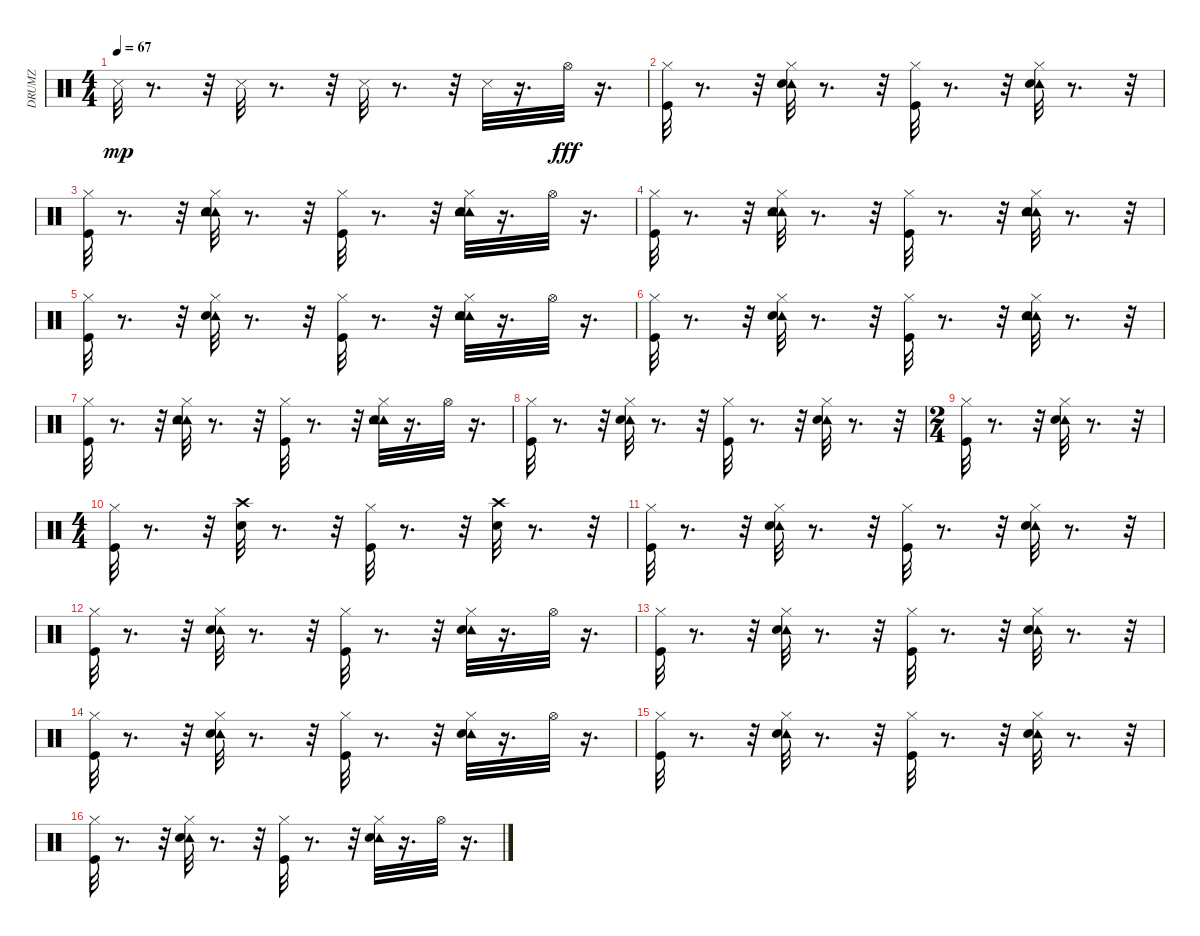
\track ("DRUMZ" "DRUMZ") {instrument percussion}
\staff {score}
\articulation defaults
\ts (4 4)
\tempo 67
\clef neutral
\ks c "Snare (side stick) 3".32{dy mp}
r.8{d} r.32 "Snare (side stick) 3".32 r.8{d} r.32 "Snare (side stick) 3".32 r.8{d} r.32 "Snare (side stick) 3".32 r.16{d} "Hi-Hat (open)".32{dy fff} r.16{d} |
("Hi-Hat (closed)" "Kick (hit)").32 r.8{d} r.32 ("Tambourine (hit)" "Hi-Hat (closed)" "Snare (hit) 2").32 r.8{d} r.32 ("Hi-Hat (closed)" "Kick (hit)").32 r.8{d} r.32 ("Tambourine (hit)" "Hi-Hat (closed)" "Snare (hit) 2").32 r.8{d} r.32 |
("Hi-Hat (closed)" "Kick (hit)").32 r.8{d} r.32 ("Tambourine (hit)" "Tambourine (hit)" "Hi-Hat (closed)" "Snare (hit) 2").32 r.8{d} r.32 ("Hi-Hat (closed)" "Kick (hit)").32 r.8{d} r.32 ("Tambourine (hit)" "Tambourine (hit)" "Hi-Hat (closed)" "Snare (hit) 2").32 r.16{d} "Hi-Hat (open)".32 r.16{d} |
("Hi-Hat (closed)" "Kick (hit)").32 r.8{d} r.32 ("Tambourine (hit)" "Tambourine (hit)" "Hi-Hat (closed)" "Snare (hit) 2").32 r.8{d} r.32 ("Hi-Hat (closed)" "Kick (hit)").32 r.8{d} r.32 ("Tambourine (hit)" "Tambourine (hit)" "Hi-Hat (closed)" "Snare (hit) 2").32 r.8{d} r.32 |
("Hi-Hat (closed)" "Kick (hit)").32 r.8{d} r.32 ("Tambourine (hit)" "Hi-Hat (closed)" "Snare (hit) 2").32 r.8{d} r.32 ("Hi-Hat (closed)" "Kick (hit)").32 r.8{d} r.32 ("Tambourine (hit)" "Tambourine (hit)" "Hi-Hat (closed)" "Snare (hit) 2").32 r.16{d} "Hi-Hat (open)".32 r.16{d} |
("Hi-Hat (closed)" "Kick (hit)").32 r.8{d} r.32 ("Tambourine (hit)" "Hi-Hat (closed)" "Snare (hit) 2").32 r.8{d} r.32 ("Hi-Hat (closed)" "Kick (hit)").32 r.8{d} r.32 ("Tambourine (hit)" "Tambourine (hit)" "Hi-Hat (closed)" "Snare (hit) 2").32 r.8{d} r.32 |
("Hi-Hat (closed)" "Kick (hit)").32 r.8{d} r.32 ("Tambourine (hit)" "Tambourine (hit)" "Hi-Hat (closed)" "Snare (hit) 2").32 r.8{d} r.32 ("Hi-Hat (closed)" "Kick (hit)").32 r.8{d} r.32 ("Tambourine (hit)" "Tambourine (hit)" "Hi-Hat (closed)" "Snare (hit) 2").32 r.16{d} "Hi-Hat (open)".32 r.16{d} |
("Hi-Hat (closed)" "Kick (hit)").32 r.8{d} r.32 ("Tambourine (hit)" "Hi-Hat (closed)" "Snare (hit) 2").32 r.8{d} r.32 ("Hi-Hat (closed)" "Kick (hit)").32 r.8{d} r.32 ("Tambourine (hit)" "Hi-Hat (closed)" "Snare (hit) 2").32 r.8{d} r.32 |
\ts (2 4)
("Hi-Hat (closed)" "Kick (hit)").32 r.8{d} r.32 ("Tambourine (hit)" "Hi-Hat (closed)" "Snare (hit) 2").32 r.8{d} r.32 |
\ts (4 4)
("Hi-Hat (closed)" "Kick (hit)").32 r.8{d} r.32 ("Crash high (hit)" "Snare (hit) 2").32 r.8{d} r.32 ("Hi-Hat (closed)" "Kick (hit)").32 r.8{d} r.32 ("Crash high (hit)" "Snare (hit) 2").32 r.8{d} r.32 |
("Hi-Hat (closed)" "Kick (hit)").32 r.8{d} r.32 ("Tambourine (hit)" "Hi-Hat (closed)" "Snare (hit) 2").32 r.8{d} r.32 ("Hi-Hat (closed)" "Kick (hit)").32 r.8{d} r.32 ("Tambourine (hit)" "Hi-Hat (closed)" "Snare (hit) 2").32 r.8{d} r.32 |
("Hi-Hat (closed)" "Kick (hit)").32 r.8{d} r.32 ("Tambourine (hit)" "Hi-Hat (closed)" "Snare (hit) 2").32 r.8{d} r.32 ("Hi-Hat (closed)" "Kick (hit)").32 r.8{d} r.32 ("Tambourine (hit)" "Hi-Hat (closed)" "Snare (hit) 2").32 r.16{d} "Hi-Hat (open)".32 r.16{d} |
("Hi-Hat (closed)" "Kick (hit)").32 r.8{d} r.32 ("Tambourine (hit)" "Hi-Hat (closed)" "Snare (hit) 2").32 r.8{d} r.32 ("Hi-Hat (closed)" "Kick (hit)").32 r.8{d} r.32 ("Tambourine (hit)" "Hi-Hat (closed)" "Snare (hit) 2").32 r.8{d} r.32 |
("Hi-Hat (closed)" "Kick (hit)").32 r.8{d} r.32 ("Tambourine (hit)" "Hi-Hat (closed)" "Snare (hit) 2").32 r.8{d} r.32 ("Hi-Hat (closed)" "Kick (hit)").32 r.8{d} r.32 ("Tambourine (hit)" "Hi-Hat (closed)" "Snare (hit) 2").32 r.16{d} "Hi-Hat (open)".32 r.16{d} |
("Hi-Hat (closed)" "Kick (hit)").32 r.8{d} r.32 ("Tambourine (hit)" "Hi-Hat (closed)" "Snare (hit) 2").32 r.8{d} r.32 ("Hi-Hat (closed)" "Kick (hit)").32 r.8{d} r.32 ("Tambourine (hit)" "Hi-Hat (closed)" "Snare (hit) 2").32 r.8{d} r.32 |
("Hi-Hat (closed)" "Kick (hit)").32 r.8{d} r.32 ("Tambourine (hit)" "Hi-Hat (closed)" "Snare (hit) 2").32 r.8{d} r.32 ("Kick (hit)" "Hi-Hat (closed)").32 r.8{d} r.32 ("Tambourine (hit)" "Snare (hit) 2" "Hi-Hat (closed)").32 r.16{d} "Hi-Hat (open)".32 r.16{d}
